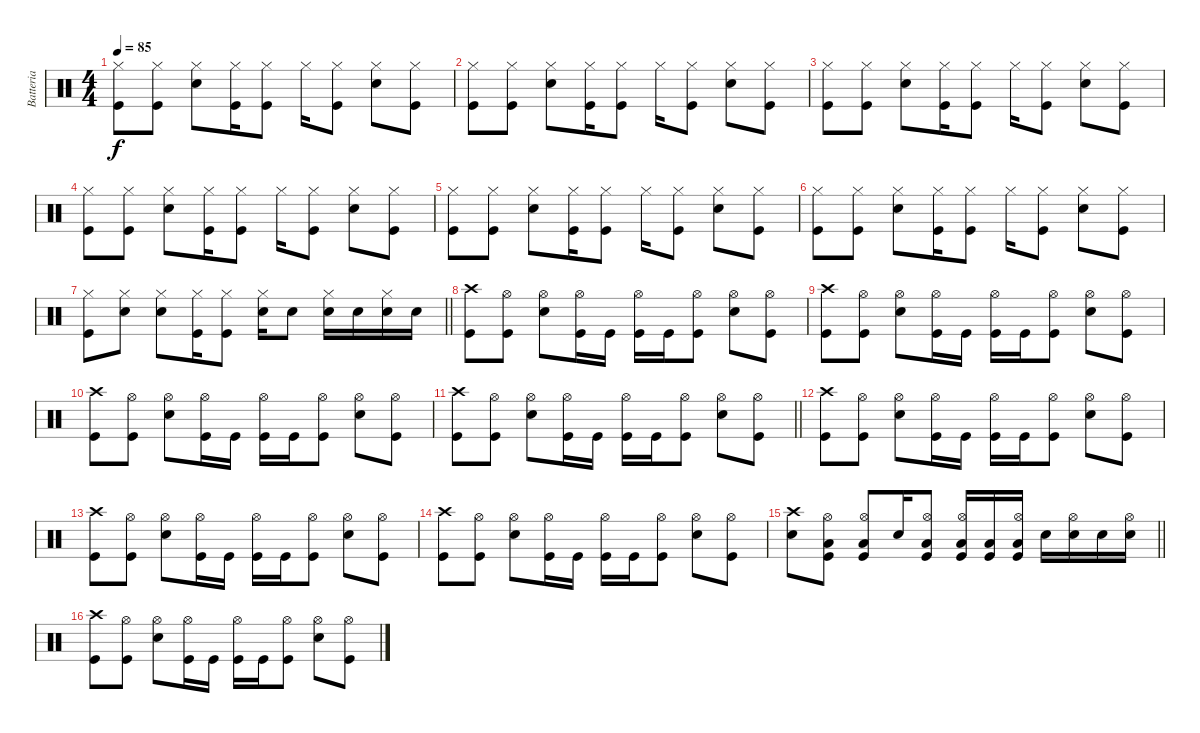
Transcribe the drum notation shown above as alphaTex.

\track ("Batteria" "Batteria") {instrument percussion}
\staff {score}
\articulation defaults
\ts (4 4)
\tempo 85
\clef neutral
\ks c
("Kick (hit)" "Hi-Hat (closed)").8{dy f} ("Kick (hit)" "Hi-Hat (closed)").8 ("Snare (hit) 2" "Hi-Hat (closed)").8 ("Kick (hit)" "Hi-Hat (closed)").16 ("Kick (hit)" "Hi-Hat (closed)").8 "Hi-Hat (closed)".16 ("Kick (hit)" "Hi-Hat (closed)").8 ("Snare (hit) 2" "Hi-Hat (closed)").8 ("Kick (hit)" "Hi-Hat (closed)").8 |
("Kick (hit)" "Hi-Hat (closed)").8 ("Kick (hit)" "Hi-Hat (closed)").8 ("Snare (hit) 2" "Hi-Hat (closed)").8 ("Kick (hit)" "Hi-Hat (closed)").16 ("Kick (hit)" "Hi-Hat (closed)").8 "Hi-Hat (closed)".16 ("Kick (hit)" "Hi-Hat (closed)").8 ("Snare (hit) 2" "Hi-Hat (closed)").8 ("Kick (hit)" "Hi-Hat (closed)").8 |
("Kick (hit)" "Hi-Hat (closed)").8 ("Kick (hit)" "Hi-Hat (closed)").8 ("Snare (hit) 2" "Hi-Hat (closed)").8 ("Kick (hit)" "Hi-Hat (closed)").16 ("Kick (hit)" "Hi-Hat (closed)").8 "Hi-Hat (closed)".16 ("Kick (hit)" "Hi-Hat (closed)").8 ("Snare (hit) 2" "Hi-Hat (closed)").8 ("Kick (hit)" "Hi-Hat (closed)").8 |
("Kick (hit)" "Hi-Hat (closed)").8 ("Kick (hit)" "Hi-Hat (closed)").8 ("Snare (hit) 2" "Hi-Hat (closed)").8 ("Kick (hit)" "Hi-Hat (closed)").16 ("Kick (hit)" "Hi-Hat (closed)").8 "Hi-Hat (closed)".16 ("Kick (hit)" "Hi-Hat (closed)").8 ("Snare (hit) 2" "Hi-Hat (closed)").8 ("Kick (hit)" "Hi-Hat (closed)").8 |
("Kick (hit)" "Hi-Hat (closed)").8 ("Kick (hit)" "Hi-Hat (closed)").8 ("Snare (hit) 2" "Hi-Hat (closed)").8 ("Kick (hit)" "Hi-Hat (closed)").16 ("Kick (hit)" "Hi-Hat (closed)").8 "Hi-Hat (closed)".16 ("Kick (hit)" "Hi-Hat (closed)").8 ("Snare (hit) 2" "Hi-Hat (closed)").8 ("Kick (hit)" "Hi-Hat (closed)").8 |
("Kick (hit)" "Hi-Hat (closed)").8 ("Kick (hit)" "Hi-Hat (closed)").8 ("Snare (hit) 2" "Hi-Hat (closed)").8 ("Kick (hit)" "Hi-Hat (closed)").16 ("Kick (hit)" "Hi-Hat (closed)").8 "Hi-Hat (closed)".16 ("Kick (hit)" "Hi-Hat (closed)").8 ("Snare (hit) 2" "Hi-Hat (closed)").8 ("Kick (hit)" "Hi-Hat (closed)").8 |
\barLineRight lightlight
("Kick (hit)" "Hi-Hat (closed)").8 ("Snare (hit) 2" "Hi-Hat (closed)").8 ("Snare (hit) 2" "Hi-Hat (closed)").8 ("Kick (hit)" "Hi-Hat (closed)").16 ("Kick (hit)" "Hi-Hat (closed)").8 ("Snare (hit) 2" "Hi-Hat (closed)").16 "Snare (hit) 2".8 ("Snare (hit) 2" "Hi-Hat (closed)").16 "Snare (hit) 2".16 ("Snare (hit) 2" "Hi-Hat (closed)").16 "Snare (hit) 2".16 |
("Kick (hit)" "Crash high (hit)").8 ("Kick (hit)" "Hi-Hat (open)").8 ("Snare (hit) 2" "Hi-Hat (open)").8 ("Kick (hit)" "Hi-Hat (open)").16 "Kick (hit)".16 ("Kick (hit)" "Hi-Hat (open)").16 "Kick (hit)".16 ("Kick (hit)" "Hi-Hat (open)").8 ("Hi-Hat (open)" "Snare (hit) 2").8 ("Kick (hit)" "Hi-Hat (open)").8 |
("Kick (hit)" "Crash high (hit)").8 ("Kick (hit)" "Hi-Hat (open)").8 ("Snare (hit) 2" "Hi-Hat (open)").8 ("Kick (hit)" "Hi-Hat (open)").16 "Kick (hit)".16 ("Kick (hit)" "Hi-Hat (open)").16 "Kick (hit)".16 ("Kick (hit)" "Hi-Hat (open)").8 ("Hi-Hat (open)" "Snare (hit) 2").8 ("Kick (hit)" "Hi-Hat (open)").8 |
("Kick (hit)" "Crash high (hit)").8 ("Kick (hit)" "Hi-Hat (open)").8 ("Snare (hit) 2" "Hi-Hat (open)").8 ("Kick (hit)" "Hi-Hat (open)").16 "Kick (hit)".16 ("Kick (hit)" "Hi-Hat (open)").16 "Kick (hit)".16 ("Kick (hit)" "Hi-Hat (open)").8 ("Hi-Hat (open)" "Snare (hit) 2").8 ("Kick (hit)" "Hi-Hat (open)").8 |
\barLineRight lightlight
("Kick (hit)" "Crash high (hit)").8 ("Kick (hit)" "Hi-Hat (open)").8 ("Snare (hit) 2" "Hi-Hat (open)").8 ("Kick (hit)" "Hi-Hat (open)").16 "Kick (hit)".16 ("Kick (hit)" "Hi-Hat (open)").16 "Kick (hit)".16 ("Kick (hit)" "Hi-Hat (open)").8 ("Hi-Hat (open)" "Snare (hit) 2").8 ("Kick (hit)" "Hi-Hat (open)").8 |
("Kick (hit)" "Crash high (hit)").8 ("Kick (hit)" "Hi-Hat (open)").8 ("Snare (hit) 2" "Hi-Hat (open)").8 ("Kick (hit)" "Hi-Hat (open)").16 "Kick (hit)".16 ("Kick (hit)" "Hi-Hat (open)").16 "Kick (hit)".16 ("Kick (hit)" "Hi-Hat (open)").8 ("Hi-Hat (open)" "Snare (hit) 2").8 ("Kick (hit)" "Hi-Hat (open)").8 |
("Kick (hit)" "Crash high (hit)").8 ("Kick (hit)" "Hi-Hat (open)").8 ("Snare (hit) 2" "Hi-Hat (open)").8 ("Kick (hit)" "Hi-Hat (open)").16 "Kick (hit)".16 ("Kick (hit)" "Hi-Hat (open)").16 "Kick (hit)".16 ("Kick (hit)" "Hi-Hat (open)").8 ("Hi-Hat (open)" "Snare (hit) 2").8 ("Kick (hit)" "Hi-Hat (open)").8 |
("Kick (hit)" "Crash high (hit)").8 ("Kick (hit)" "Hi-Hat (open)").8 ("Snare (hit) 2" "Hi-Hat (open)").8 ("Kick (hit)" "Hi-Hat (open)").16 "Kick (hit)".16 ("Kick (hit)" "Hi-Hat (open)").16 "Kick (hit)".16 ("Kick (hit)" "Hi-Hat (open)").8 ("Hi-Hat (open)" "Snare (hit) 2").8 ("Kick (hit)" "Hi-Hat (open)").8 |
\barLineRight lightlight
("Snare (hit) 2" "Crash high (hit)").8 ("Kick (hit)" "Hi-Hat (open)" "Low Floor Tom (hit)").8 ("Kick (hit)" "Hi-Hat (open)" "Low Floor Tom (hit)").8 "Snare (hit) 2".16 ("Kick (hit)" "Hi-Hat (open)" "Low Floor Tom (hit)").8 ("Kick (hit)" "Hi-Hat (open)" "Low Floor Tom (hit)").16 ("Kick (hit)" "Low Floor Tom (hit)").16 ("Kick (hit)" "Hi-Hat (open)" "Low Floor Tom (hit)").16 "Snare (hit) 2".16 ("Snare (hit) 2" "Hi-Hat (open)").16 "Snare (hit) 2".16 ("Snare (hit) 2" "Hi-Hat (open)").16 |
("Kick (hit)" "Crash high (hit)").8 ("Kick (hit)" "Hi-Hat (open)").8 ("Snare (hit) 2" "Hi-Hat (open)").8 ("Kick (hit)" "Hi-Hat (open)").16 "Kick (hit)".16 ("Kick (hit)" "Hi-Hat (open)").16 "Kick (hit)".16 ("Kick (hit)" "Hi-Hat (open)").8 ("Hi-Hat (open)" "Snare (hit) 2").8 ("Kick (hit)" "Hi-Hat (open)").8
